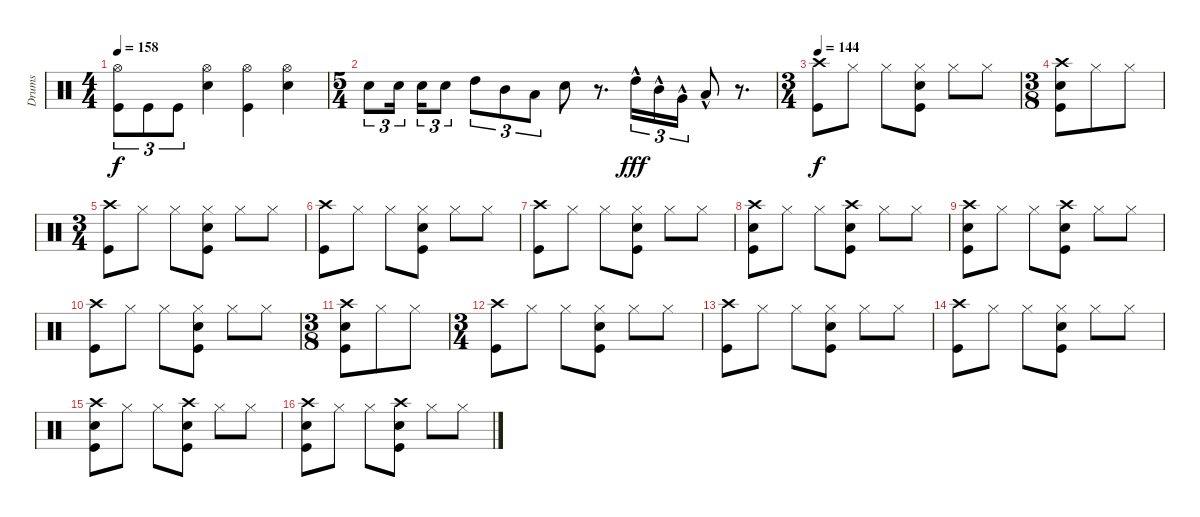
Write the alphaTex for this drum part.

\track ("Drums" "Drums") {instrument percussion}
\staff {score}
\articulation defaults
\ts (4 4)
\tempo 158
\clef neutral
\ks c
("Hi-Hat (open)" "Kick (hit)").8{tu (3 2) dy f} "Kick (hit)".8{tu (3 2)} "Kick (hit)".8{tu (3 2)} ("Hi-Hat (open)" "Electric Snare (hit)").4 ("Hi-Hat (open)" "Kick (hit)").4 ("Hi-Hat (open)" "Electric Snare (hit)").4 |
\ts (5 4)
"Electric Snare (hit)".8{tu (3 2)} "Electric Snare (hit)".16{tu (3 2) beam splitsecondary} "Electric Snare (hit)".16{tu (3 2)} "Electric Snare (hit)".8{tu (3 2)} "High Tom (hit)".8{tu (3 2)} "Mid Tom (hit)".8{tu (3 2)} "Low Tom (hit)".8{tu (3 2)} "Electric Snare (hit)".8 r.8{d} "High Tom (hit)"{hac}.16{tu (3 2) dy fff} "Mid Tom (hit)"{hac}.16{tu (3 2)} "Very Low Tom (hit)"{hac}.16{tu (3 2)} "Low Floor Tom (hit)"{hac}.8 r.8{d} |
\ts (3 4)
\tempo 144
("Crash high (hit)" "Kick (hit)").8{dy f} "Hi-Hat (closed)".8 "Hi-Hat (closed)".8 ("Hi-Hat (closed)" "Electric Snare (hit)" "Kick (hit)").8 "Hi-Hat (closed)".8 "Hi-Hat (closed)".8 |
\ts (3 8)
("Crash high (hit)" "Electric Snare (hit)" "Kick (hit)").8 "Hi-Hat (closed)".8 "Hi-Hat (closed)".8 |
\ts (3 4)
("Crash high (hit)" "Kick (hit)").8 "Hi-Hat (closed)".8 "Hi-Hat (closed)".8 ("Hi-Hat (closed)" "Electric Snare (hit)" "Kick (hit)").8 "Hi-Hat (closed)".8 "Hi-Hat (closed)".8 |
("Crash high (hit)" "Kick (hit)").8 "Hi-Hat (closed)".8 "Hi-Hat (closed)".8 ("Hi-Hat (closed)" "Electric Snare (hit)" "Kick (hit)").8 "Hi-Hat (closed)".8 "Hi-Hat (closed)".8 |
("Crash high (hit)" "Kick (hit)").8 "Hi-Hat (closed)".8 "Hi-Hat (closed)".8 ("Hi-Hat (closed)" "Electric Snare (hit)" "Kick (hit)").8 "Hi-Hat (closed)".8 "Hi-Hat (closed)".8 |
("Crash high (hit)" "Electric Snare (hit)" "Kick (hit)").8 "Hi-Hat (closed)".8 "Hi-Hat (closed)".8 ("Crash high (hit)" "Electric Snare (hit)" "Kick (hit)").8 "Hi-Hat (closed)".8 "Hi-Hat (closed)".8 |
("Crash high (hit)" "Electric Snare (hit)" "Kick (hit)").8 "Hi-Hat (closed)".8 "Hi-Hat (closed)".8 ("Crash high (hit)" "Electric Snare (hit)" "Kick (hit)").8 "Hi-Hat (closed)".8 "Hi-Hat (closed)".8 |
("Crash high (hit)" "Kick (hit)").8 "Hi-Hat (closed)".8 "Hi-Hat (closed)".8 ("Hi-Hat (closed)" "Electric Snare (hit)" "Kick (hit)").8 "Hi-Hat (closed)".8 "Hi-Hat (closed)".8 |
\ts (3 8)
("Crash high (hit)" "Electric Snare (hit)" "Kick (hit)").8 "Hi-Hat (closed)".8 "Hi-Hat (closed)".8 |
\ts (3 4)
("Crash high (hit)" "Kick (hit)").8 "Hi-Hat (closed)".8 "Hi-Hat (closed)".8 ("Hi-Hat (closed)" "Electric Snare (hit)" "Kick (hit)").8 "Hi-Hat (closed)".8 "Hi-Hat (closed)".8 |
("Crash high (hit)" "Kick (hit)").8 "Hi-Hat (closed)".8 "Hi-Hat (closed)".8 ("Hi-Hat (closed)" "Electric Snare (hit)" "Kick (hit)").8 "Hi-Hat (closed)".8 "Hi-Hat (closed)".8 |
("Crash high (hit)" "Kick (hit)").8 "Hi-Hat (closed)".8 "Hi-Hat (closed)".8 ("Hi-Hat (closed)" "Electric Snare (hit)" "Kick (hit)").8 "Hi-Hat (closed)".8 "Hi-Hat (closed)".8 |
("Crash high (hit)" "Electric Snare (hit)" "Kick (hit)").8 "Hi-Hat (closed)".8 "Hi-Hat (closed)".8 ("Crash high (hit)" "Electric Snare (hit)" "Kick (hit)").8 "Hi-Hat (closed)".8 "Hi-Hat (closed)".8 |
("Crash high (hit)" "Electric Snare (hit)" "Kick (hit)").8 "Hi-Hat (closed)".8 "Hi-Hat (closed)".8 ("Crash high (hit)" "Electric Snare (hit)" "Kick (hit)").8 "Hi-Hat (closed)".8 "Hi-Hat (closed)".8
